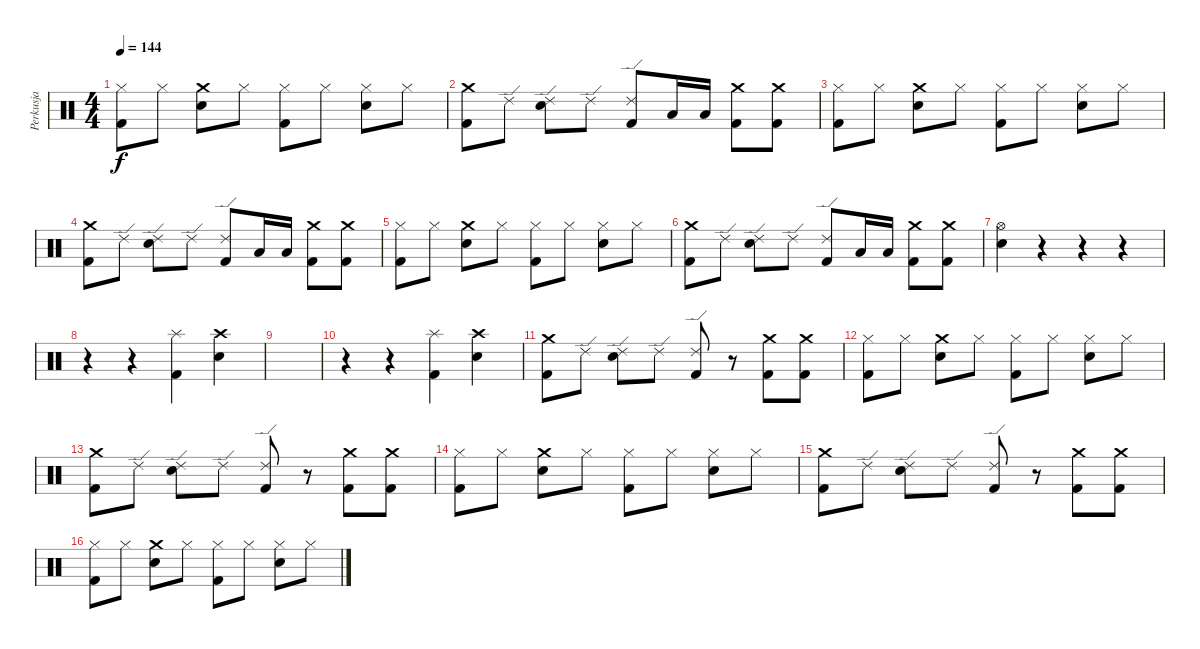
\track ("Perkusja" "Perkusja") {instrument percussion}
\staff {score}
\articulation defaults
\ts (4 4)
\tempo 144
\clef neutral
\ks c
("Hi-Hat (closed)" "Kick (hit) 2").8{dy f} "Hi-Hat (closed)".8 ("Crash medium (hit)" "Snare (hit) 2").8 "Hi-Hat (closed)".8 ("Hi-Hat (closed)" "Kick (hit) 2").8 "Hi-Hat (closed)".8 ("Snare (hit) 2" "Hi-Hat (closed)").8 "Hi-Hat (closed)".8 |
("Crash medium (hit)" "Kick (hit) 2").8 "Ride (edge) 2".8 ("Snare (hit) 2" "Ride (edge) 2").8 "Ride (edge) 2".8 ("Ride (edge) 2" "Kick (hit) 2").8 "Low Tom (hit)".16 "Low Tom (hit)".16 ("Crash medium (hit)" "Kick (hit) 2").8 ("Crash medium (hit)" "Kick (hit) 2").8 |
("Hi-Hat (closed)" "Kick (hit) 2").8 "Hi-Hat (closed)".8 ("Crash medium (hit)" "Snare (hit) 2").8 "Hi-Hat (closed)".8 ("Hi-Hat (closed)" "Kick (hit) 2").8 "Hi-Hat (closed)".8 ("Snare (hit) 2" "Hi-Hat (closed)").8 "Hi-Hat (closed)".8 |
("Crash medium (hit)" "Kick (hit) 2").8 "Ride (edge) 2".8 ("Snare (hit) 2" "Ride (edge) 2").8 "Ride (edge) 2".8 ("Ride (edge) 2" "Kick (hit) 2").8 "Low Tom (hit)".16 "Low Tom (hit)".16 ("Crash medium (hit)" "Kick (hit) 2").8 ("Crash medium (hit)" "Kick (hit) 2").8 |
("Hi-Hat (closed)" "Kick (hit) 2").8 "Hi-Hat (closed)".8 ("Crash medium (hit)" "Snare (hit) 2").8 "Hi-Hat (closed)".8 ("Hi-Hat (closed)" "Kick (hit) 2").8 "Hi-Hat (closed)".8 ("Snare (hit) 2" "Hi-Hat (closed)").8 "Hi-Hat (closed)".8 |
("Crash medium (hit)" "Kick (hit) 2").8 "Ride (edge) 2".8 ("Snare (hit) 2" "Ride (edge) 2").8 "Ride (edge) 2".8 ("Ride (edge) 2" "Kick (hit) 2").8 "Low Tom (hit)".16 "Low Tom (hit)".16 ("Crash medium (hit)" "Kick (hit) 2").8 ("Crash medium (hit)" "Kick (hit) 2").8 |
("Snare (hit) 2" "Hi-Hat (open)").4 r.4 r.4 r.4 |
r.4 r.4 ("Kick (hit) 2" "Splash (hit)").4 ("Snare (hit) 2" "Crash high (hit)").4 |
|
r.4 r.4 ("Kick (hit) 2" "Splash (hit)").4 ("Snare (hit) 2" "Crash high (hit)").4 |
("Crash medium (hit)" "Kick (hit) 2").8 "Ride (edge) 2".8 ("Snare (hit) 2" "Ride (edge) 2").8 "Ride (edge) 2".8 ("Ride (edge) 2" "Kick (hit) 2").8 r.8 ("Crash medium (hit)" "Kick (hit) 2").8 ("Crash medium (hit)" "Kick (hit) 2").8 |
("Hi-Hat (closed)" "Kick (hit) 2").8 "Hi-Hat (closed)".8 ("Crash medium (hit)" "Snare (hit) 2").8 "Hi-Hat (closed)".8 ("Hi-Hat (closed)" "Kick (hit) 2").8 "Hi-Hat (closed)".8 ("Snare (hit) 2" "Hi-Hat (closed)").8 "Hi-Hat (closed)".8 |
("Crash medium (hit)" "Kick (hit) 2").8 "Ride (edge) 2".8 ("Snare (hit) 2" "Ride (edge) 2").8 "Ride (edge) 2".8 ("Ride (edge) 2" "Kick (hit) 2").8 r.8 ("Crash medium (hit)" "Kick (hit) 2").8 ("Crash medium (hit)" "Kick (hit) 2").8 |
("Hi-Hat (closed)" "Kick (hit) 2").8 "Hi-Hat (closed)".8 ("Crash medium (hit)" "Snare (hit) 2").8 "Hi-Hat (closed)".8 ("Hi-Hat (closed)" "Kick (hit) 2").8 "Hi-Hat (closed)".8 ("Snare (hit) 2" "Hi-Hat (closed)").8 "Hi-Hat (closed)".8 |
("Crash medium (hit)" "Kick (hit) 2").8 "Ride (edge) 2".8 ("Snare (hit) 2" "Ride (edge) 2").8 "Ride (edge) 2".8 ("Ride (edge) 2" "Kick (hit) 2").8 r.8 ("Crash medium (hit)" "Kick (hit) 2").8 ("Crash medium (hit)" "Kick (hit) 2").8 |
("Hi-Hat (closed)" "Kick (hit) 2").8 "Hi-Hat (closed)".8 ("Crash medium (hit)" "Snare (hit) 2").8 "Hi-Hat (closed)".8 ("Hi-Hat (closed)" "Kick (hit) 2").8 "Hi-Hat (closed)".8 ("Snare (hit) 2" "Hi-Hat (closed)").8 "Hi-Hat (closed)".8
